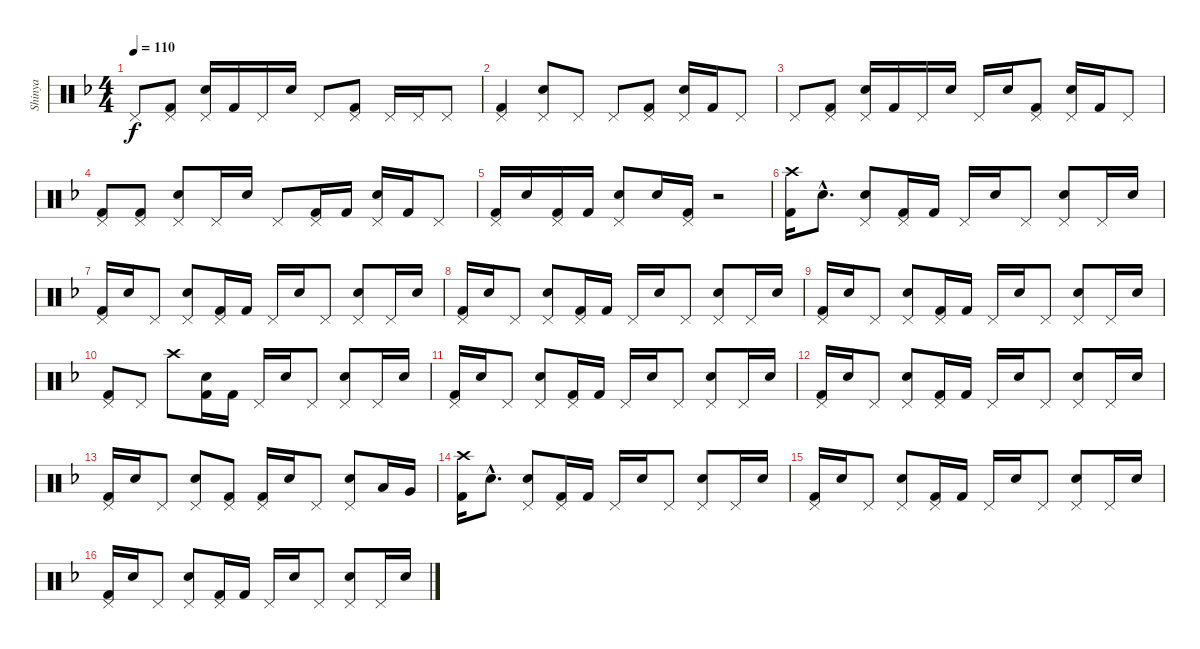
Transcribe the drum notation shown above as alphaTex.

\track ("Shinya" "Shinya") {instrument percussion}
\staff {score}
\articulation defaults
\ts (4 4)
\tempo 110
\clef neutral
\ks f "Pedal Hi-Hat (hit)".8{dy f}
("Pedal Hi-Hat (hit)" "Kick (hit) 2").8 ("Pedal Hi-Hat (hit)" "Electric Snare (hit)").16 "Kick (hit) 2".16 "Pedal Hi-Hat (hit)".16 "Electric Snare (hit)".16 "Pedal Hi-Hat (hit)".8 ("Pedal Hi-Hat (hit)" "Kick (hit) 2").8 "Pedal Hi-Hat (hit)".16 "Pedal Hi-Hat (hit)".16 "Pedal Hi-Hat (hit)".8 |
("Pedal Hi-Hat (hit)" "Kick (hit) 2").4 ("Pedal Hi-Hat (hit)" "Electric Snare (hit)").8 "Pedal Hi-Hat (hit)".8 "Pedal Hi-Hat (hit)".8 ("Pedal Hi-Hat (hit)" "Kick (hit) 2").8 ("Pedal Hi-Hat (hit)" "Electric Snare (hit)").16 "Kick (hit) 2".16 "Pedal Hi-Hat (hit)".8 |
"Pedal Hi-Hat (hit)".8 ("Pedal Hi-Hat (hit)" "Kick (hit) 2").8 ("Pedal Hi-Hat (hit)" "Electric Snare (hit)").16 "Kick (hit) 2".16 "Pedal Hi-Hat (hit)".16 "Electric Snare (hit)".16 "Pedal Hi-Hat (hit)".16 "Electric Snare (hit)".16 ("Pedal Hi-Hat (hit)" "Kick (hit) 2").8 ("Pedal Hi-Hat (hit)" "Electric Snare (hit)").16 "Kick (hit) 2".16 "Pedal Hi-Hat (hit)".8 |
("Pedal Hi-Hat (hit)" "Kick (hit) 2").8 ("Pedal Hi-Hat (hit)" "Kick (hit) 2").8 ("Pedal Hi-Hat (hit)" "Electric Snare (hit)").8 "Pedal Hi-Hat (hit)".16 "Electric Snare (hit)".16 "Pedal Hi-Hat (hit)".8 ("Pedal Hi-Hat (hit)" "Kick (hit) 2").16 "Kick (hit) 2".16 ("Pedal Hi-Hat (hit)" "Electric Snare (hit)").16 "Kick (hit) 2".16 "Pedal Hi-Hat (hit)".8 |
("Pedal Hi-Hat (hit)" "Kick (hit) 2").16 "Electric Snare (hit)".16 ("Pedal Hi-Hat (hit)" "Kick (hit) 2").16 "Kick (hit) 2".16 ("Pedal Hi-Hat (hit)" "Electric Snare (hit)").8 "Electric Snare (hit)".16 ("Pedal Hi-Hat (hit)" "Kick (hit) 2").16 r.2 |
("Crash high (hit)" "Kick (hit) 2").16 "Electric Snare (hit)"{hac}.8{d} ("Pedal Hi-Hat (hit)" "Electric Snare (hit)").8 ("Pedal Hi-Hat (hit)" "Kick (hit) 2").16 "Kick (hit) 2".16 "Pedal Hi-Hat (hit)".16 "Electric Snare (hit)".16 "Pedal Hi-Hat (hit)".8 ("Pedal Hi-Hat (hit)" "Electric Snare (hit)").8 "Pedal Hi-Hat (hit)".16 "Electric Snare (hit)".16 |
("Pedal Hi-Hat (hit)" "Kick (hit) 2").16 "Electric Snare (hit)".16 "Pedal Hi-Hat (hit)".8 ("Pedal Hi-Hat (hit)" "Electric Snare (hit)").8 ("Pedal Hi-Hat (hit)" "Kick (hit) 2").16 "Kick (hit) 2".16 "Pedal Hi-Hat (hit)".16 "Electric Snare (hit)".16 "Pedal Hi-Hat (hit)".8 ("Pedal Hi-Hat (hit)" "Electric Snare (hit)").8 "Pedal Hi-Hat (hit)".16 "Electric Snare (hit)".16 |
("Pedal Hi-Hat (hit)" "Kick (hit) 2").16 "Electric Snare (hit)".16 "Pedal Hi-Hat (hit)".8 ("Pedal Hi-Hat (hit)" "Electric Snare (hit)").8 ("Pedal Hi-Hat (hit)" "Kick (hit) 2").16 "Kick (hit) 2".16 "Pedal Hi-Hat (hit)".16 "Electric Snare (hit)".16 "Pedal Hi-Hat (hit)".8 ("Pedal Hi-Hat (hit)" "Electric Snare (hit)").8 "Pedal Hi-Hat (hit)".16 "Electric Snare (hit)".16 |
("Pedal Hi-Hat (hit)" "Kick (hit) 2").16 "Electric Snare (hit)".16 "Pedal Hi-Hat (hit)".8 ("Pedal Hi-Hat (hit)" "Electric Snare (hit)").8 ("Pedal Hi-Hat (hit)" "Kick (hit) 2").16 "Kick (hit) 2".16 "Pedal Hi-Hat (hit)".16 "Electric Snare (hit)".16 "Pedal Hi-Hat (hit)".8 ("Pedal Hi-Hat (hit)" "Electric Snare (hit)").8 "Pedal Hi-Hat (hit)".16 "Electric Snare (hit)".16 |
("Pedal Hi-Hat (hit)" "Kick (hit) 2").8 "Pedal Hi-Hat (hit)".8 "Crash high (hit)".8 ("Electric Snare (hit)" "Kick (hit) 2").16 "Kick (hit) 2".16 "Pedal Hi-Hat (hit)".16 "Electric Snare (hit)".16 "Pedal Hi-Hat (hit)".8 ("Pedal Hi-Hat (hit)" "Electric Snare (hit)").8 "Pedal Hi-Hat (hit)".16 "Electric Snare (hit)".16 |
("Pedal Hi-Hat (hit)" "Kick (hit) 2").16 "Electric Snare (hit)".16 "Pedal Hi-Hat (hit)".8 ("Pedal Hi-Hat (hit)" "Electric Snare (hit)").8 ("Pedal Hi-Hat (hit)" "Kick (hit) 2").16 "Kick (hit) 2".16 "Pedal Hi-Hat (hit)".16 "Electric Snare (hit)".16 "Pedal Hi-Hat (hit)".8 ("Pedal Hi-Hat (hit)" "Electric Snare (hit)").8 "Pedal Hi-Hat (hit)".16 "Electric Snare (hit)".16 |
("Pedal Hi-Hat (hit)" "Kick (hit) 2").16 "Electric Snare (hit)".16 "Pedal Hi-Hat (hit)".8 ("Pedal Hi-Hat (hit)" "Electric Snare (hit)").8 ("Pedal Hi-Hat (hit)" "Kick (hit) 2").16 "Kick (hit) 2".16 "Pedal Hi-Hat (hit)".16 "Electric Snare (hit)".16 "Pedal Hi-Hat (hit)".8 ("Pedal Hi-Hat (hit)" "Electric Snare (hit)").8 "Pedal Hi-Hat (hit)".16 "Electric Snare (hit)".16 |
("Pedal Hi-Hat (hit)" "Kick (hit) 2").16 "Electric Snare (hit)".16 "Pedal Hi-Hat (hit)".8 ("Pedal Hi-Hat (hit)" "Electric Snare (hit)").8 ("Pedal Hi-Hat (hit)" "Kick (hit) 2").8 ("Pedal Hi-Hat (hit)" "Kick (hit) 2").16 "Electric Snare (hit)".16 "Pedal Hi-Hat (hit)".8 ("Pedal Hi-Hat (hit)" "Electric Snare (hit)").8 "Low Tom (hit)".16 "Very Low Tom (hit)".16 |
("Crash high (hit)" "Kick (hit) 2").16 "Electric Snare (hit)"{hac}.8{d} ("Pedal Hi-Hat (hit)" "Electric Snare (hit)").8 ("Pedal Hi-Hat (hit)" "Kick (hit) 2").16 "Kick (hit) 2".16 "Pedal Hi-Hat (hit)".16 "Electric Snare (hit)".16 "Pedal Hi-Hat (hit)".8 ("Pedal Hi-Hat (hit)" "Electric Snare (hit)").8 "Pedal Hi-Hat (hit)".16 "Electric Snare (hit)".16 |
("Pedal Hi-Hat (hit)" "Kick (hit) 2").16 "Electric Snare (hit)".16 "Pedal Hi-Hat (hit)".8 ("Pedal Hi-Hat (hit)" "Electric Snare (hit)").8 ("Pedal Hi-Hat (hit)" "Kick (hit) 2").16 "Kick (hit) 2".16 "Pedal Hi-Hat (hit)".16 "Electric Snare (hit)".16 "Pedal Hi-Hat (hit)".8 ("Pedal Hi-Hat (hit)" "Electric Snare (hit)").8 "Pedal Hi-Hat (hit)".16 "Electric Snare (hit)".16 |
("Pedal Hi-Hat (hit)" "Kick (hit) 2").16 "Electric Snare (hit)".16 "Pedal Hi-Hat (hit)".8 ("Pedal Hi-Hat (hit)" "Electric Snare (hit)").8 ("Pedal Hi-Hat (hit)" "Kick (hit) 2").16 "Kick (hit) 2".16 "Pedal Hi-Hat (hit)".16 "Electric Snare (hit)".16 "Pedal Hi-Hat (hit)".8 ("Pedal Hi-Hat (hit)" "Electric Snare (hit)").8 "Pedal Hi-Hat (hit)".16 "Electric Snare (hit)".16
